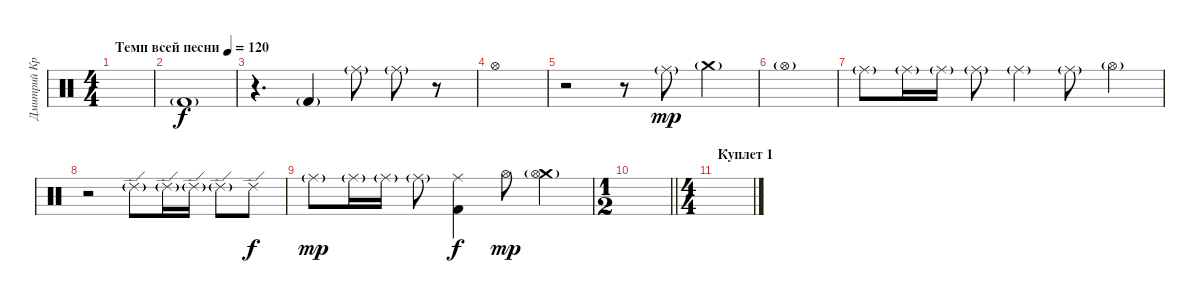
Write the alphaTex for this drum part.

\track ("Дмитрий Кривенков       (Ударные)" "Дмитрий Кр") {instrument percussion}
\staff {score}
\articulation defaults
\ts (4 4)
\tempo (120 "Темп всей песни")
\clef neutral
\ks c
|
"Kick (hit) 2"{g}.1 |
r.4{d} "Kick (hit) 2"{g}.4 "Ride (middle)"{g}.8 "Ride (middle)"{g}.8 r.8 |
"Hi-Hat (open)".1{dy f} |
r.2 r.8 "Ride (middle)"{g}.8{dy mp} "Crash medium (hit)"{g}.4 |
"Hi-Hat (open)"{g}.1 |
"Ride (middle)"{g}.8 "Ride (middle)"{g}.16 "Ride (middle)"{g}.16 "Ride (middle)"{g}.8 "Ride (middle)"{g}.4 "Ride (middle)"{g}.8 "Hi-Hat (open)"{g}.4 |
r.2 "Ride (edge) 2"{g}.8 "Ride (edge) 2"{g}.16 "Ride (edge) 2"{g}.16 "Ride (edge) 2"{g}.8 "Ride (edge) 2".8{dy f} |
"Ride (middle)"{g}.8{dy mp} "Ride (middle)"{g}.16 "Ride (middle)"{g}.16 "Ride (middle)"{g}.8 ("Ride (middle)" "Kick (hit) 2").4{dy f} "Hi-Hat (open)".8{dy mp} ("Crash medium (hit)" "Hi-Hat (open)"{g}).4 |
\ts (1 2)
\barLineRight lightlight
|
\ts (4 4)
\section ("" "Куплет 1")
